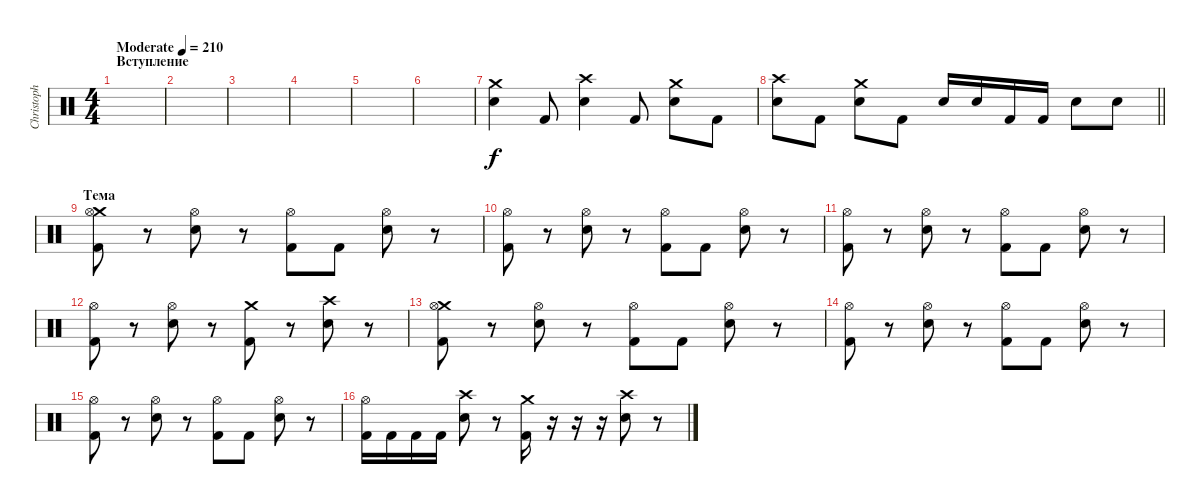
\track ("Christoph Schneider" "Christoph ") {instrument percussion}
\staff {score}
\articulation defaults
\ts (4 4)
\section ("" "Вступление")
\tempo (210 "Moderate")
\clef neutral
\ks c
|
|
|
|
|
|
("Crash medium (hit)" "Electric Snare (hit)").4 "Kick (hit) 2".8 ("Crash high (hit)" "Electric Snare (hit)").4 "Kick (hit) 2".8 ("Crash medium (hit)" "Electric Snare (hit)").8 "Kick (hit) 2".8 |
\barLineRight lightlight
("Crash high (hit)" "Electric Snare (hit)").8 "Kick (hit) 2".8 ("Crash medium (hit)" "Electric Snare (hit)").8 "Kick (hit) 2".8 "Electric Snare (hit)".16 "Electric Snare (hit)".16 "Kick (hit) 2".16 "Kick (hit) 2".16 "Electric Snare (hit)".8 "Electric Snare (hit)".8 |
\section ("" "Тема")
("Crash medium (hit)" "Kick (hit) 2" "Hi-Hat (open)").8 r.8 ("Hi-Hat (open)" "Electric Snare (hit)").8 r.8 ("Hi-Hat (open)" "Kick (hit) 2").8 "Kick (hit) 2".8 ("Hi-Hat (open)" "Electric Snare (hit)").8 r.8 |
("Hi-Hat (open)" "Kick (hit) 2").8 r.8 ("Hi-Hat (open)" "Electric Snare (hit)").8 r.8 ("Hi-Hat (open)" "Kick (hit) 2").8 "Kick (hit) 2".8 ("Hi-Hat (open)" "Electric Snare (hit)").8 r.8 |
("Hi-Hat (open)" "Kick (hit) 2").8 r.8 ("Hi-Hat (open)" "Electric Snare (hit)").8 r.8 ("Hi-Hat (open)" "Kick (hit) 2").8 "Kick (hit) 2".8 ("Hi-Hat (open)" "Electric Snare (hit)").8 r.8 |
("Hi-Hat (open)" "Kick (hit) 2").8 r.8 ("Hi-Hat (open)" "Electric Snare (hit)").8 r.8 ("Crash medium (hit)" "Kick (hit) 2").8 r.8 ("Crash high (hit)" "Electric Snare (hit)").8 r.8 |
("Crash medium (hit)" "Kick (hit) 2" "Hi-Hat (open)").8 r.8 ("Hi-Hat (open)" "Electric Snare (hit)").8 r.8 ("Hi-Hat (open)" "Kick (hit) 2").8 "Kick (hit) 2".8 ("Hi-Hat (open)" "Electric Snare (hit)").8 r.8 |
("Hi-Hat (open)" "Kick (hit) 2").8 r.8 ("Hi-Hat (open)" "Electric Snare (hit)").8 r.8 ("Hi-Hat (open)" "Kick (hit) 2").8 "Kick (hit) 2".8 ("Hi-Hat (open)" "Electric Snare (hit)").8 r.8 |
("Hi-Hat (open)" "Kick (hit) 2").8 r.8 ("Hi-Hat (open)" "Electric Snare (hit)").8 r.8 ("Hi-Hat (open)" "Kick (hit) 2").8 "Kick (hit) 2".8 ("Hi-Hat (open)" "Electric Snare (hit)").8 r.8 |
("Hi-Hat (open)" "Kick (hit) 2").16 "Kick (hit) 2".16 "Kick (hit) 2".16 "Kick (hit) 2".16 ("Crash high (hit)" "Electric Snare (hit)").8 r.8 ("Crash medium (hit)" "Kick (hit) 2").16 r.16 r.16 r.16 ("Crash high (hit)" "Electric Snare (hit)").8 r.8
